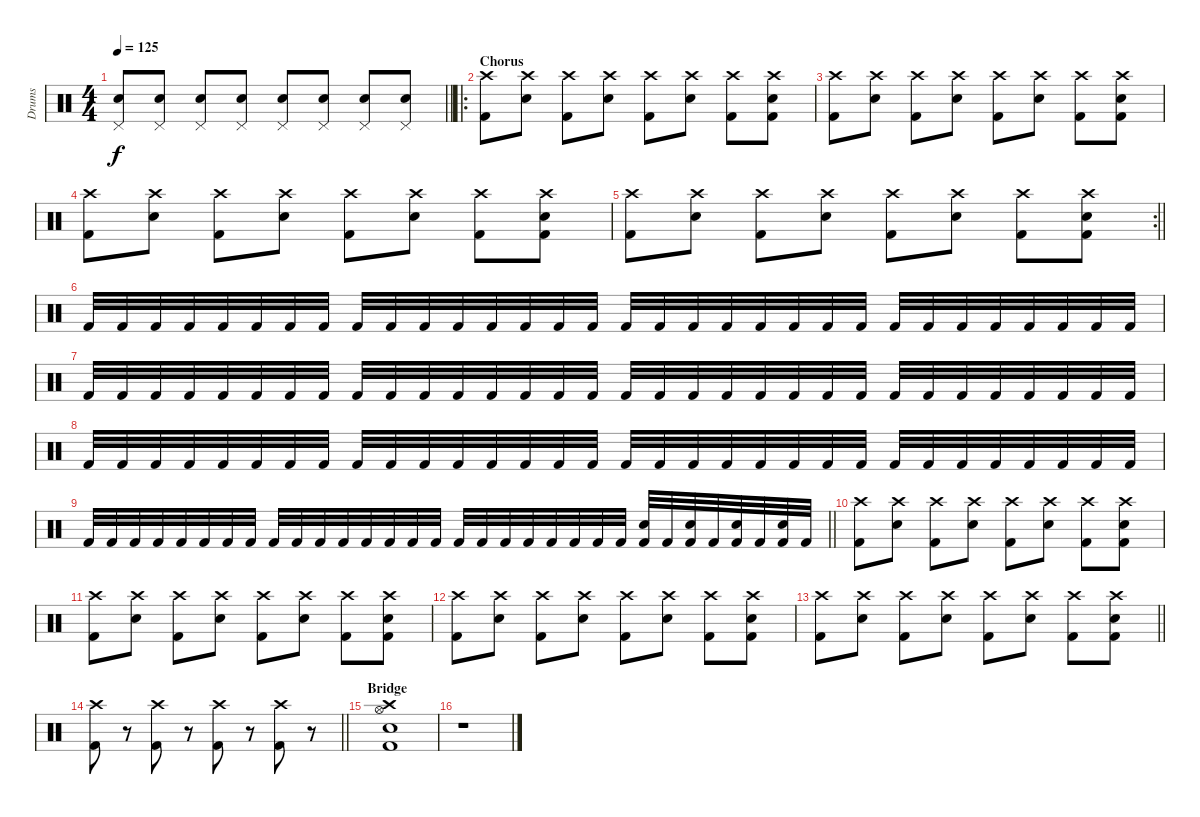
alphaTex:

\track ("Drums" "Drums") {instrument percussion}
\staff {score}
\articulation defaults
\ts (4 4)
\tempo 125
\clef neutral
\barLineRight lightlight
\ks c
("Snare (hit) 2" "Pedal Hi-Hat (hit)").8{dy f volume 14} ("Snare (hit) 2" "Pedal Hi-Hat (hit)").8 ("Snare (hit) 2" "Pedal Hi-Hat (hit)").8{volume 15} ("Snare (hit) 2" "Pedal Hi-Hat (hit)").8 ("Snare (hit) 2" "Pedal Hi-Hat (hit)").8{volume 16} ("Snare (hit) 2" "Pedal Hi-Hat (hit)").8 ("Snare (hit) 2" "Pedal Hi-Hat (hit)").8 ("Snare (hit) 2" "Pedal Hi-Hat (hit)").8 |
\ro
\section ("" "Chorus")
("Crash high (hit)" "Kick (hit) 2").8{volume 13} ("Crash high (hit)" "Snare (hit) 2").8 ("Crash high (hit)" "Kick (hit) 2").8 ("Crash high (hit)" "Snare (hit) 2").8 ("Crash high (hit)" "Kick (hit) 2").8 ("Crash high (hit)" "Snare (hit) 2").8 ("Crash high (hit)" "Kick (hit) 2").8 ("Crash high (hit)" "Snare (hit) 2" "Kick (hit) 2").8 |
("Crash high (hit)" "Kick (hit) 2").8{volume 13} ("Crash high (hit)" "Snare (hit) 2").8 ("Crash high (hit)" "Kick (hit) 2").8 ("Crash high (hit)" "Snare (hit) 2").8 ("Crash high (hit)" "Kick (hit) 2").8 ("Crash high (hit)" "Snare (hit) 2").8 ("Crash high (hit)" "Kick (hit) 2").8 ("Crash high (hit)" "Snare (hit) 2" "Kick (hit) 2").8 |
("Crash high (hit)" "Kick (hit) 2").8{volume 13} ("Crash high (hit)" "Snare (hit) 2").8 ("Crash high (hit)" "Kick (hit) 2").8 ("Crash high (hit)" "Snare (hit) 2").8 ("Crash high (hit)" "Kick (hit) 2").8 ("Crash high (hit)" "Snare (hit) 2").8 ("Crash high (hit)" "Kick (hit) 2").8 ("Crash high (hit)" "Snare (hit) 2" "Kick (hit) 2").8 |
\rc 2
\barLineRight lightlight
("Crash high (hit)" "Kick (hit) 2").8{volume 13} ("Crash high (hit)" "Snare (hit) 2").8 ("Crash high (hit)" "Kick (hit) 2").8 ("Crash high (hit)" "Snare (hit) 2").8 ("Crash high (hit)" "Kick (hit) 2").8 ("Crash high (hit)" "Snare (hit) 2").8 ("Crash high (hit)" "Kick (hit) 2").8 ("Crash high (hit)" "Snare (hit) 2" "Kick (hit) 2").8 |
"Kick (hit) 2".32 "Kick (hit) 2".32 "Kick (hit) 2".32 "Kick (hit) 2".32 "Kick (hit) 2".32 "Kick (hit) 2".32 "Kick (hit) 2".32 "Kick (hit) 2".32 "Kick (hit) 2".32 "Kick (hit) 2".32 "Kick (hit) 2".32 "Kick (hit) 2".32 "Kick (hit) 2".32 "Kick (hit) 2".32 "Kick (hit) 2".32 "Kick (hit) 2".32 "Kick (hit) 2".32 "Kick (hit) 2".32 "Kick (hit) 2".32 "Kick (hit) 2".32 "Kick (hit) 2".32 "Kick (hit) 2".32 "Kick (hit) 2".32 "Kick (hit) 2".32 "Kick (hit) 2".32 "Kick (hit) 2".32 "Kick (hit) 2".32 "Kick (hit) 2".32 "Kick (hit) 2".32 "Kick (hit) 2".32 "Kick (hit) 2".32 "Kick (hit) 2".32 |
"Kick (hit) 2".32 "Kick (hit) 2".32 "Kick (hit) 2".32 "Kick (hit) 2".32 "Kick (hit) 2".32 "Kick (hit) 2".32 "Kick (hit) 2".32 "Kick (hit) 2".32 "Kick (hit) 2".32 "Kick (hit) 2".32 "Kick (hit) 2".32 "Kick (hit) 2".32 "Kick (hit) 2".32 "Kick (hit) 2".32 "Kick (hit) 2".32 "Kick (hit) 2".32 "Kick (hit) 2".32 "Kick (hit) 2".32 "Kick (hit) 2".32 "Kick (hit) 2".32 "Kick (hit) 2".32 "Kick (hit) 2".32 "Kick (hit) 2".32 "Kick (hit) 2".32 "Kick (hit) 2".32 "Kick (hit) 2".32 "Kick (hit) 2".32 "Kick (hit) 2".32 "Kick (hit) 2".32 "Kick (hit) 2".32 "Kick (hit) 2".32 "Kick (hit) 2".32 |
"Kick (hit) 2".32 "Kick (hit) 2".32 "Kick (hit) 2".32 "Kick (hit) 2".32 "Kick (hit) 2".32 "Kick (hit) 2".32 "Kick (hit) 2".32 "Kick (hit) 2".32 "Kick (hit) 2".32 "Kick (hit) 2".32 "Kick (hit) 2".32 "Kick (hit) 2".32 "Kick (hit) 2".32 "Kick (hit) 2".32 "Kick (hit) 2".32 "Kick (hit) 2".32 "Kick (hit) 2".32 "Kick (hit) 2".32 "Kick (hit) 2".32 "Kick (hit) 2".32 "Kick (hit) 2".32 "Kick (hit) 2".32 "Kick (hit) 2".32 "Kick (hit) 2".32 "Kick (hit) 2".32 "Kick (hit) 2".32 "Kick (hit) 2".32 "Kick (hit) 2".32 "Kick (hit) 2".32 "Kick (hit) 2".32 "Kick (hit) 2".32 "Kick (hit) 2".32 |
\barLineRight lightlight "Kick (hit) 2".32 "Kick (hit) 2".32 "Kick (hit) 2".32 "Kick (hit) 2".32 "Kick (hit) 2".32 "Kick (hit) 2".32 "Kick (hit) 2".32 "Kick (hit) 2".32 "Kick (hit) 2".32 "Kick (hit) 2".32 "Kick (hit) 2".32 "Kick (hit) 2".32 "Kick (hit) 2".32 "Kick (hit) 2".32 "Kick (hit) 2".32 "Kick (hit) 2".32 "Kick (hit) 2".32 "Kick (hit) 2".32 "Kick (hit) 2".32 "Kick (hit) 2".32 "Kick (hit) 2".32 "Kick (hit) 2".32 "Kick (hit) 2".32 "Kick (hit) 2".32
("Snare (hit) 2" "Kick (hit) 2").32 "Kick (hit) 2".32 ("Snare (hit) 2" "Kick (hit) 2").32 "Kick (hit) 2".32 ("Snare (hit) 2" "Kick (hit) 2").32 "Kick (hit) 2".32 ("Snare (hit) 2" "Kick (hit) 2").32 "Kick (hit) 2".32 |
("Crash high (hit)" "Kick (hit) 2").8{volume 13} ("Crash high (hit)" "Snare (hit) 2").8 ("Crash high (hit)" "Kick (hit) 2").8 ("Crash high (hit)" "Snare (hit) 2").8 ("Crash high (hit)" "Kick (hit) 2").8 ("Crash high (hit)" "Snare (hit) 2").8 ("Crash high (hit)" "Kick (hit) 2").8 ("Crash high (hit)" "Snare (hit) 2" "Kick (hit) 2").8 |
("Crash high (hit)" "Kick (hit) 2").8{volume 13} ("Crash high (hit)" "Snare (hit) 2").8 ("Crash high (hit)" "Kick (hit) 2").8 ("Crash high (hit)" "Snare (hit) 2").8 ("Crash high (hit)" "Kick (hit) 2").8 ("Crash high (hit)" "Snare (hit) 2").8 ("Crash high (hit)" "Kick (hit) 2").8 ("Crash high (hit)" "Snare (hit) 2" "Kick (hit) 2").8 |
("Crash high (hit)" "Kick (hit) 2").8{volume 13} ("Crash high (hit)" "Snare (hit) 2").8 ("Crash high (hit)" "Kick (hit) 2").8 ("Crash high (hit)" "Snare (hit) 2").8 ("Crash high (hit)" "Kick (hit) 2").8 ("Crash high (hit)" "Snare (hit) 2").8 ("Crash high (hit)" "Kick (hit) 2").8 ("Crash high (hit)" "Snare (hit) 2" "Kick (hit) 2").8 |
\barLineRight lightlight
("Crash high (hit)" "Kick (hit) 2").8{volume 13} ("Crash high (hit)" "Snare (hit) 2").8 ("Crash high (hit)" "Kick (hit) 2").8 ("Crash high (hit)" "Snare (hit) 2").8 ("Crash high (hit)" "Kick (hit) 2").8 ("Crash high (hit)" "Snare (hit) 2").8 ("Crash high (hit)" "Kick (hit) 2").8 ("Crash high (hit)" "Snare (hit) 2" "Kick (hit) 2").8 |
\barLineRight lightlight
("Crash high (hit)" "Kick (hit) 2").8 r.8 ("Crash high (hit)" "Kick (hit) 2").8 r.8 ("Crash high (hit)" "Kick (hit) 2").8 r.8 ("Crash high (hit)" "Kick (hit) 2").8 r.8 |
\section ("" "Bridge")
("Snare (hit) 2" "Hi-Hat (open)" "Crash high (hit)" "Kick (hit) 2").1 |
r.1
